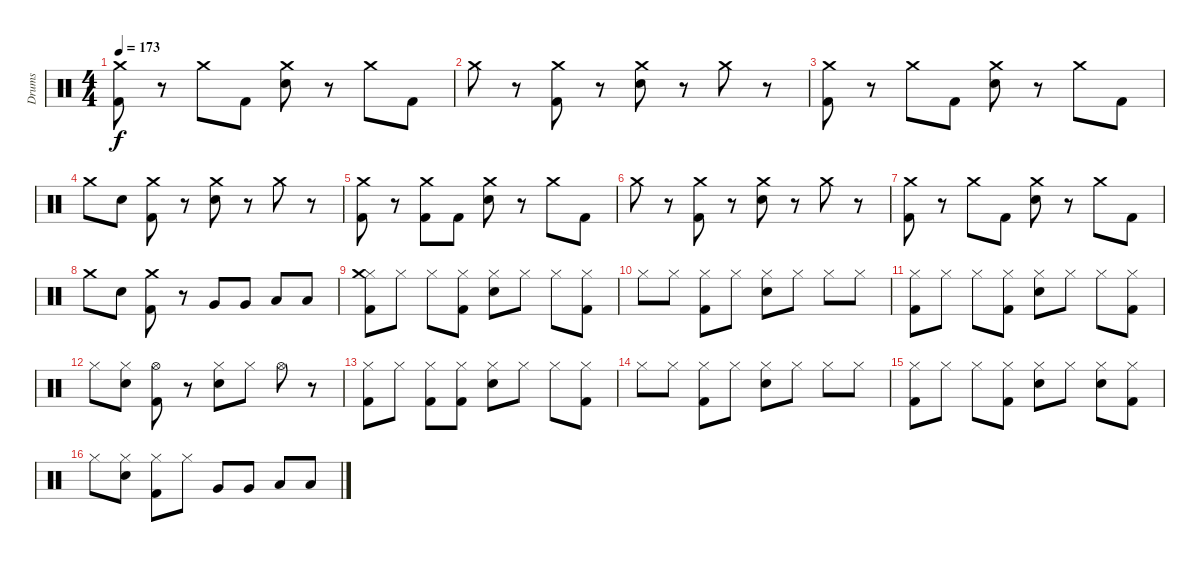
\track ("Drums" "Drums") {instrument percussion}
\staff {score}
\articulation defaults
\ts (4 4)
\tempo 173
\clef neutral
\ks c
("Kick (hit) 2" "Crash medium (hit)").8{dy f} r.8 "Crash medium (hit)".8 "Kick (hit) 2".8 ("Electric Snare (hit)" "Crash medium (hit)").8 r.8 "Crash medium (hit)".8 "Kick (hit) 2".8 |
"Crash medium (hit)".8 r.8 ("Kick (hit) 2" "Crash medium (hit)").8 r.8 ("Electric Snare (hit)" "Crash medium (hit)").8 r.8 "Crash medium (hit)".8 r.8 |
("Kick (hit) 2" "Crash medium (hit)").8 r.8 "Crash medium (hit)".8 "Kick (hit) 2".8 ("Electric Snare (hit)" "Crash medium (hit)").8 r.8 "Crash medium (hit)".8 "Kick (hit) 2".8 |
"Crash medium (hit)".8 "Electric Snare (hit)".8 ("Kick (hit) 2" "Crash medium (hit)").8 r.8 ("Electric Snare (hit)" "Crash medium (hit)").8 r.8 "Crash medium (hit)".8 r.8 |
("Kick (hit) 2" "Crash medium (hit)").8 r.8 ("Kick (hit) 2" "Crash medium (hit)").8 "Kick (hit) 2".8 ("Electric Snare (hit)" "Crash medium (hit)").8 r.8 "Crash medium (hit)".8 "Kick (hit) 2".8 |
"Crash medium (hit)".8 r.8 ("Kick (hit) 2" "Crash medium (hit)").8 r.8 ("Electric Snare (hit)" "Crash medium (hit)").8 r.8 "Crash medium (hit)".8 r.8 |
("Kick (hit) 2" "Crash medium (hit)").8 r.8 "Crash medium (hit)".8 "Kick (hit) 2".8 ("Electric Snare (hit)" "Crash medium (hit)").8 r.8 "Crash medium (hit)".8 "Kick (hit) 2".8 |
"Crash medium (hit)".8 "Electric Snare (hit)".8 ("Kick (hit) 2" "Crash medium (hit)").8 r.8 "Very Low Tom (hit)".8 "Very Low Tom (hit)".8 "Low Floor Tom (hit)".8 "Low Floor Tom (hit)".8 |
("Hi-Hat (closed)" "Kick (hit) 2" "Crash medium (hit)").8 "Hi-Hat (closed)".8 "Hi-Hat (closed)".8 ("Hi-Hat (closed)" "Kick (hit) 2").8 ("Hi-Hat (closed)" "Electric Snare (hit)").8 "Hi-Hat (closed)".8 "Hi-Hat (closed)".8 ("Hi-Hat (closed)" "Kick (hit) 2").8 |
"Hi-Hat (closed)".8 "Hi-Hat (closed)".8 ("Hi-Hat (closed)" "Kick (hit) 2").8 "Hi-Hat (closed)".8 ("Hi-Hat (closed)" "Electric Snare (hit)").8 "Hi-Hat (closed)".8 "Hi-Hat (closed)".8 "Hi-Hat (closed)".8 |
("Hi-Hat (closed)" "Kick (hit) 2").8 "Hi-Hat (closed)".8 "Hi-Hat (closed)".8 ("Hi-Hat (closed)" "Kick (hit) 2").8 ("Hi-Hat (closed)" "Electric Snare (hit)").8 "Hi-Hat (closed)".8 "Hi-Hat (closed)".8 ("Hi-Hat (closed)" "Kick (hit) 2").8 |
"Hi-Hat (closed)".8 ("Hi-Hat (closed)" "Electric Snare (hit)").8 ("Hi-Hat (open)" "Kick (hit) 2").8 r.8 ("Hi-Hat (closed)" "Electric Snare (hit)").8 "Hi-Hat (closed)".8 "Hi-Hat (open)".8 r.8 |
("Hi-Hat (closed)" "Kick (hit) 2").8 "Hi-Hat (closed)".8 ("Hi-Hat (closed)" "Kick (hit) 2").8 ("Hi-Hat (closed)" "Kick (hit) 2").8 ("Hi-Hat (closed)" "Electric Snare (hit)").8 "Hi-Hat (closed)".8 "Hi-Hat (closed)".8 ("Hi-Hat (closed)" "Kick (hit) 2").8 |
"Hi-Hat (closed)".8 "Hi-Hat (closed)".8 ("Hi-Hat (closed)" "Kick (hit) 2").8 "Hi-Hat (closed)".8 ("Hi-Hat (closed)" "Electric Snare (hit)").8 "Hi-Hat (closed)".8 "Hi-Hat (closed)".8 "Hi-Hat (closed)".8 |
("Hi-Hat (closed)" "Kick (hit) 2").8 "Hi-Hat (closed)".8 "Hi-Hat (closed)".8 ("Hi-Hat (closed)" "Kick (hit) 2").8 ("Hi-Hat (closed)" "Electric Snare (hit)").8 "Hi-Hat (closed)".8 ("Hi-Hat (closed)" "Electric Snare (hit)").8 ("Hi-Hat (closed)" "Kick (hit) 2").8 |
"Hi-Hat (closed)".8 ("Hi-Hat (closed)" "Electric Snare (hit)").8 ("Hi-Hat (closed)" "Kick (hit) 2").8 "Hi-Hat (closed)".8 "Very Low Tom (hit)".8 "Very Low Tom (hit)".8 "Low Floor Tom (hit)".8 "Low Floor Tom (hit)".8
